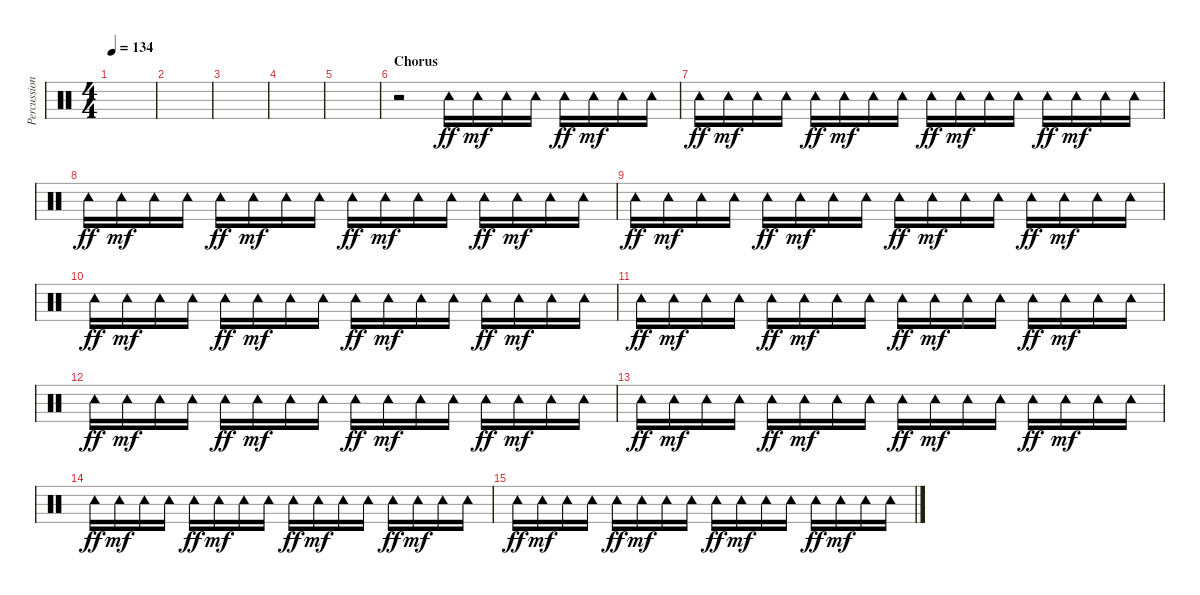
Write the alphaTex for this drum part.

\track ("Percussion" "Percussion") {instrument percussion}
\staff {score}
\articulation defaults
\ts (4 4)
\tempo 134
\clef neutral
\ks c
|
|
|
|
|
\section ("" "Chorus")
r.2 "Tambourine (hit)".16{dy ff} "Tambourine (hit)".16{dy mf} "Tambourine (hit)".16 "Tambourine (hit)".16 "Tambourine (hit)".16{dy ff} "Tambourine (hit)".16{dy mf} "Tambourine (hit)".16 "Tambourine (hit)".16 |
"Tambourine (hit)".16{dy ff} "Tambourine (hit)".16{dy mf} "Tambourine (hit)".16 "Tambourine (hit)".16 "Tambourine (hit)".16{dy ff} "Tambourine (hit)".16{dy mf} "Tambourine (hit)".16 "Tambourine (hit)".16 "Tambourine (hit)".16{dy ff} "Tambourine (hit)".16{dy mf} "Tambourine (hit)".16 "Tambourine (hit)".16 "Tambourine (hit)".16{dy ff} "Tambourine (hit)".16{dy mf} "Tambourine (hit)".16 "Tambourine (hit)".16 |
"Tambourine (hit)".16{dy ff} "Tambourine (hit)".16{dy mf} "Tambourine (hit)".16 "Tambourine (hit)".16 "Tambourine (hit)".16{dy ff} "Tambourine (hit)".16{dy mf} "Tambourine (hit)".16 "Tambourine (hit)".16 "Tambourine (hit)".16{dy ff} "Tambourine (hit)".16{dy mf} "Tambourine (hit)".16 "Tambourine (hit)".16 "Tambourine (hit)".16{dy ff} "Tambourine (hit)".16{dy mf} "Tambourine (hit)".16 "Tambourine (hit)".16 |
"Tambourine (hit)".16{dy ff} "Tambourine (hit)".16{dy mf} "Tambourine (hit)".16 "Tambourine (hit)".16 "Tambourine (hit)".16{dy ff} "Tambourine (hit)".16{dy mf} "Tambourine (hit)".16 "Tambourine (hit)".16 "Tambourine (hit)".16{dy ff} "Tambourine (hit)".16{dy mf} "Tambourine (hit)".16 "Tambourine (hit)".16 "Tambourine (hit)".16{dy ff} "Tambourine (hit)".16{dy mf} "Tambourine (hit)".16 "Tambourine (hit)".16 |
"Tambourine (hit)".16{dy ff} "Tambourine (hit)".16{dy mf} "Tambourine (hit)".16 "Tambourine (hit)".16 "Tambourine (hit)".16{dy ff} "Tambourine (hit)".16{dy mf} "Tambourine (hit)".16 "Tambourine (hit)".16 "Tambourine (hit)".16{dy ff} "Tambourine (hit)".16{dy mf} "Tambourine (hit)".16 "Tambourine (hit)".16 "Tambourine (hit)".16{dy ff} "Tambourine (hit)".16{dy mf} "Tambourine (hit)".16 "Tambourine (hit)".16 |
"Tambourine (hit)".16{dy ff} "Tambourine (hit)".16{dy mf} "Tambourine (hit)".16 "Tambourine (hit)".16 "Tambourine (hit)".16{dy ff} "Tambourine (hit)".16{dy mf} "Tambourine (hit)".16 "Tambourine (hit)".16 "Tambourine (hit)".16{dy ff} "Tambourine (hit)".16{dy mf} "Tambourine (hit)".16 "Tambourine (hit)".16 "Tambourine (hit)".16{dy ff} "Tambourine (hit)".16{dy mf} "Tambourine (hit)".16 "Tambourine (hit)".16 |
"Tambourine (hit)".16{dy ff} "Tambourine (hit)".16{dy mf} "Tambourine (hit)".16 "Tambourine (hit)".16 "Tambourine (hit)".16{dy ff} "Tambourine (hit)".16{dy mf} "Tambourine (hit)".16 "Tambourine (hit)".16 "Tambourine (hit)".16{dy ff} "Tambourine (hit)".16{dy mf} "Tambourine (hit)".16 "Tambourine (hit)".16 "Tambourine (hit)".16{dy ff} "Tambourine (hit)".16{dy mf} "Tambourine (hit)".16 "Tambourine (hit)".16 |
"Tambourine (hit)".16{dy ff} "Tambourine (hit)".16{dy mf} "Tambourine (hit)".16 "Tambourine (hit)".16 "Tambourine (hit)".16{dy ff} "Tambourine (hit)".16{dy mf} "Tambourine (hit)".16 "Tambourine (hit)".16 "Tambourine (hit)".16{dy ff} "Tambourine (hit)".16{dy mf} "Tambourine (hit)".16 "Tambourine (hit)".16 "Tambourine (hit)".16{dy ff} "Tambourine (hit)".16{dy mf} "Tambourine (hit)".16 "Tambourine (hit)".16 |
"Tambourine (hit)".16{dy ff} "Tambourine (hit)".16{dy mf} "Tambourine (hit)".16 "Tambourine (hit)".16 "Tambourine (hit)".16{dy ff} "Tambourine (hit)".16{dy mf} "Tambourine (hit)".16 "Tambourine (hit)".16 "Tambourine (hit)".16{dy ff} "Tambourine (hit)".16{dy mf} "Tambourine (hit)".16 "Tambourine (hit)".16 "Tambourine (hit)".16{dy ff} "Tambourine (hit)".16{dy mf} "Tambourine (hit)".16 "Tambourine (hit)".16 |
"Tambourine (hit)".16{dy ff} "Tambourine (hit)".16{dy mf} "Tambourine (hit)".16 "Tambourine (hit)".16 "Tambourine (hit)".16{dy ff} "Tambourine (hit)".16{dy mf} "Tambourine (hit)".16 "Tambourine (hit)".16 "Tambourine (hit)".16{dy ff} "Tambourine (hit)".16{dy mf} "Tambourine (hit)".16 "Tambourine (hit)".16 "Tambourine (hit)".16{dy ff} "Tambourine (hit)".16{dy mf} "Tambourine (hit)".16 "Tambourine (hit)".16
